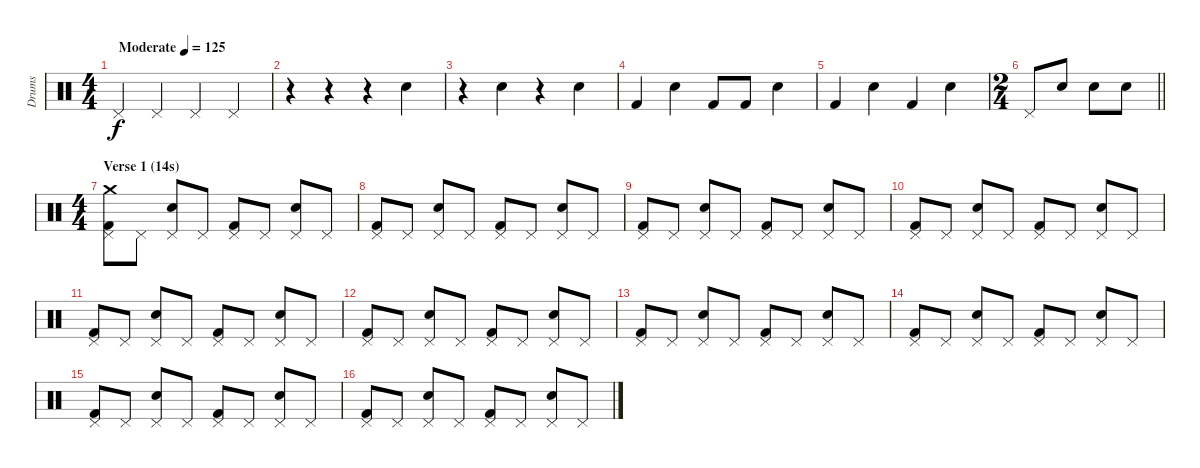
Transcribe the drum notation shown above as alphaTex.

\track ("Drums" "Drums") {instrument percussion}
\staff {score}
\articulation defaults
\ts (4 4)
\tempo (125 "Moderate")
\clef neutral
\ks c "Pedal Hi-Hat (hit)".4{dy f} "Pedal Hi-Hat (hit)".4 "Pedal Hi-Hat (hit)".4 "Pedal Hi-Hat (hit)".4
|
r.4 r.4 r.4 "Electric Snare (hit)".4 |
r.4 "Electric Snare (hit)".4 r.4 "Electric Snare (hit)".4 |
"Kick (hit) 2".4 "Electric Snare (hit)".4 "Kick (hit) 2".8 "Kick (hit) 2".8 "Electric Snare (hit)".4 |
"Kick (hit) 2".4 "Electric Snare (hit)".4 "Kick (hit) 2".4 "Electric Snare (hit)".4 |
\ts (2 4)
\barLineRight lightlight "Pedal Hi-Hat (hit)".8 "Electric Snare (hit)".8 "Electric Snare (hit)".8 "Electric Snare (hit)".8
|
\ts (4 4)
\section ("" "Verse 1 (14s)")
("Pedal Hi-Hat (hit)" "Crash medium (hit)" "Kick (hit) 2").8 "Pedal Hi-Hat (hit)".8 ("Pedal Hi-Hat (hit)" "Electric Snare (hit)").8 "Pedal Hi-Hat (hit)".8 ("Pedal Hi-Hat (hit)" "Kick (hit) 2").8 "Pedal Hi-Hat (hit)".8 ("Pedal Hi-Hat (hit)" "Electric Snare (hit)").8 "Pedal Hi-Hat (hit)".8 |
("Pedal Hi-Hat (hit)" "Kick (hit) 2").8 "Pedal Hi-Hat (hit)".8 ("Pedal Hi-Hat (hit)" "Electric Snare (hit)").8 "Pedal Hi-Hat (hit)".8 ("Pedal Hi-Hat (hit)" "Kick (hit) 2").8 "Pedal Hi-Hat (hit)".8 ("Pedal Hi-Hat (hit)" "Electric Snare (hit)").8 "Pedal Hi-Hat (hit)".8 |
("Pedal Hi-Hat (hit)" "Kick (hit) 2").8 "Pedal Hi-Hat (hit)".8 ("Pedal Hi-Hat (hit)" "Electric Snare (hit)").8 "Pedal Hi-Hat (hit)".8 ("Pedal Hi-Hat (hit)" "Kick (hit) 2").8 "Pedal Hi-Hat (hit)".8 ("Pedal Hi-Hat (hit)" "Electric Snare (hit)").8 "Pedal Hi-Hat (hit)".8 |
("Pedal Hi-Hat (hit)" "Kick (hit) 2").8 "Pedal Hi-Hat (hit)".8 ("Pedal Hi-Hat (hit)" "Electric Snare (hit)").8 "Pedal Hi-Hat (hit)".8 ("Pedal Hi-Hat (hit)" "Kick (hit) 2").8 "Pedal Hi-Hat (hit)".8 ("Pedal Hi-Hat (hit)" "Electric Snare (hit)").8 "Pedal Hi-Hat (hit)".8 |
("Pedal Hi-Hat (hit)" "Kick (hit) 2").8 "Pedal Hi-Hat (hit)".8 ("Pedal Hi-Hat (hit)" "Electric Snare (hit)").8 "Pedal Hi-Hat (hit)".8 ("Pedal Hi-Hat (hit)" "Kick (hit) 2").8 "Pedal Hi-Hat (hit)".8 ("Pedal Hi-Hat (hit)" "Electric Snare (hit)").8 "Pedal Hi-Hat (hit)".8 |
("Pedal Hi-Hat (hit)" "Kick (hit) 2").8 "Pedal Hi-Hat (hit)".8 ("Pedal Hi-Hat (hit)" "Electric Snare (hit)").8 "Pedal Hi-Hat (hit)".8 ("Pedal Hi-Hat (hit)" "Kick (hit) 2").8 "Pedal Hi-Hat (hit)".8 ("Pedal Hi-Hat (hit)" "Electric Snare (hit)").8 "Pedal Hi-Hat (hit)".8 |
("Pedal Hi-Hat (hit)" "Kick (hit) 2").8 "Pedal Hi-Hat (hit)".8 ("Pedal Hi-Hat (hit)" "Electric Snare (hit)").8 "Pedal Hi-Hat (hit)".8 ("Pedal Hi-Hat (hit)" "Kick (hit) 2").8 "Pedal Hi-Hat (hit)".8 ("Pedal Hi-Hat (hit)" "Electric Snare (hit)").8 "Pedal Hi-Hat (hit)".8 |
("Pedal Hi-Hat (hit)" "Kick (hit) 2").8 "Pedal Hi-Hat (hit)".8 ("Pedal Hi-Hat (hit)" "Electric Snare (hit)").8 "Pedal Hi-Hat (hit)".8 ("Pedal Hi-Hat (hit)" "Kick (hit) 2").8 "Pedal Hi-Hat (hit)".8 ("Pedal Hi-Hat (hit)" "Electric Snare (hit)").8 "Pedal Hi-Hat (hit)".8 |
("Pedal Hi-Hat (hit)" "Kick (hit) 2").8 "Pedal Hi-Hat (hit)".8 ("Pedal Hi-Hat (hit)" "Electric Snare (hit)").8 "Pedal Hi-Hat (hit)".8 ("Pedal Hi-Hat (hit)" "Kick (hit) 2").8 "Pedal Hi-Hat (hit)".8 ("Pedal Hi-Hat (hit)" "Electric Snare (hit)").8 "Pedal Hi-Hat (hit)".8 |
("Pedal Hi-Hat (hit)" "Kick (hit) 2").8 "Pedal Hi-Hat (hit)".8 ("Pedal Hi-Hat (hit)" "Electric Snare (hit)").8 "Pedal Hi-Hat (hit)".8 ("Pedal Hi-Hat (hit)" "Kick (hit) 2").8 "Pedal Hi-Hat (hit)".8 ("Pedal Hi-Hat (hit)" "Electric Snare (hit)").8 "Pedal Hi-Hat (hit)".8
